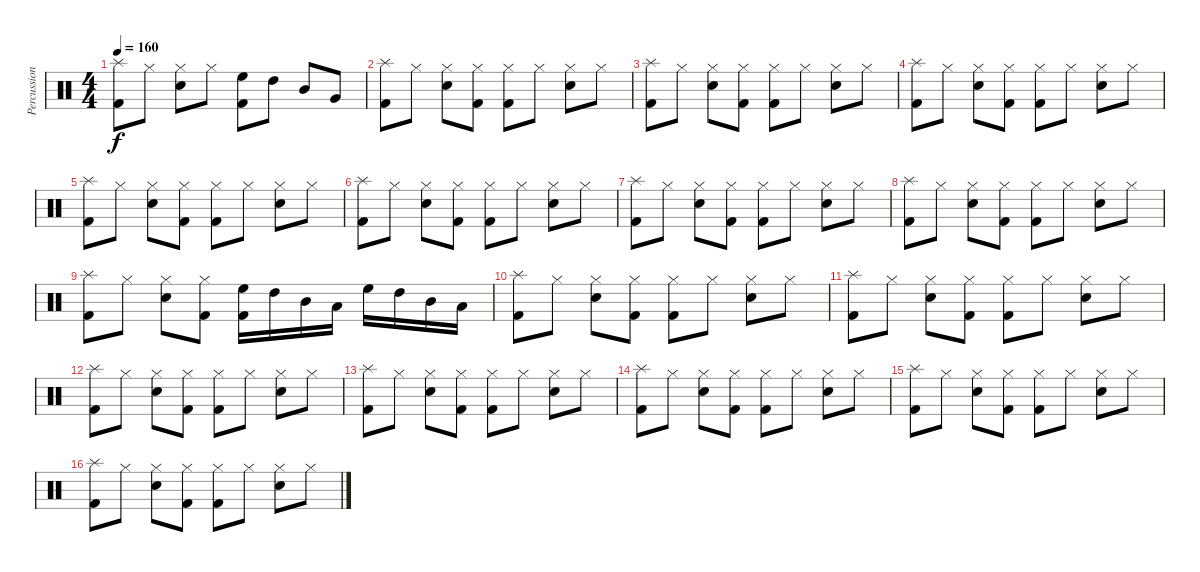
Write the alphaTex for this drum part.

\track ("Percussion" "Percussion") {instrument percussion}
\staff {score}
\articulation defaults
\ts (4 4)
\tempo 160
\clef neutral
\ks c
("Splash (hit)" "Kick (hit) 2").8{dy f} "Hi-Hat (closed)".8 ("Hi-Hat (closed)" "Snare (hit) 2").8 "Hi-Hat (closed)".8 ("High Floor Tom (hit)" "Kick (hit) 2").8 "High Tom (hit)".8 "Mid Tom (hit)".8 "Very Low Tom (hit)".8 |
("Splash (hit)" "Kick (hit) 2").8 "Hi-Hat (closed)".8 ("Hi-Hat (closed)" "Snare (hit) 2").8 ("Hi-Hat (closed)" "Kick (hit) 2").8 ("Hi-Hat (closed)" "Kick (hit) 2").8 "Hi-Hat (closed)".8 ("Hi-Hat (closed)" "Snare (hit) 2").8 "Hi-Hat (closed)".8 |
("Splash (hit)" "Kick (hit) 2").8 "Hi-Hat (closed)".8 ("Hi-Hat (closed)" "Snare (hit) 2").8 ("Hi-Hat (closed)" "Kick (hit) 2").8 ("Hi-Hat (closed)" "Kick (hit) 2").8 "Hi-Hat (closed)".8 ("Hi-Hat (closed)" "Snare (hit) 2").8 "Hi-Hat (closed)".8 |
("Splash (hit)" "Kick (hit) 2").8 "Hi-Hat (closed)".8 ("Hi-Hat (closed)" "Snare (hit) 2").8 ("Hi-Hat (closed)" "Kick (hit) 2").8 ("Hi-Hat (closed)" "Kick (hit) 2").8 "Hi-Hat (closed)".8 ("Hi-Hat (closed)" "Snare (hit) 2").8 "Hi-Hat (closed)".8 |
("Splash (hit)" "Kick (hit) 2").8 "Hi-Hat (closed)".8 ("Hi-Hat (closed)" "Snare (hit) 2").8 ("Hi-Hat (closed)" "Kick (hit) 2").8 ("Hi-Hat (closed)" "Kick (hit) 2").8 "Hi-Hat (closed)".8 ("Hi-Hat (closed)" "Snare (hit) 2").8 "Hi-Hat (closed)".8 |
("Splash (hit)" "Kick (hit) 2").8 "Hi-Hat (closed)".8 ("Hi-Hat (closed)" "Snare (hit) 2").8 ("Hi-Hat (closed)" "Kick (hit) 2").8 ("Hi-Hat (closed)" "Kick (hit) 2").8 "Hi-Hat (closed)".8 ("Hi-Hat (closed)" "Snare (hit) 2").8 "Hi-Hat (closed)".8 |
("Splash (hit)" "Kick (hit) 2").8 "Hi-Hat (closed)".8 ("Hi-Hat (closed)" "Snare (hit) 2").8 ("Hi-Hat (closed)" "Kick (hit) 2").8 ("Hi-Hat (closed)" "Kick (hit) 2").8 "Hi-Hat (closed)".8 ("Hi-Hat (closed)" "Snare (hit) 2").8 "Hi-Hat (closed)".8 |
("Splash (hit)" "Kick (hit) 2").8 "Hi-Hat (closed)".8 ("Hi-Hat (closed)" "Snare (hit) 2").8 ("Hi-Hat (closed)" "Kick (hit) 2").8 ("Hi-Hat (closed)" "Kick (hit) 2").8 "Hi-Hat (closed)".8 ("Hi-Hat (closed)" "Snare (hit) 2").8 "Hi-Hat (closed)".8 |
("Splash (hit)" "Kick (hit) 2").8 "Hi-Hat (closed)".8 ("Hi-Hat (closed)" "Snare (hit) 2").8 ("Hi-Hat (closed)" "Kick (hit) 2").8 ("High Floor Tom (hit)" "Kick (hit) 2").16 "High Tom (hit)".16 "Mid Tom (hit)".16 "Low Tom (hit)".16 "High Floor Tom (hit)".16 "High Tom (hit)".16 "Mid Tom (hit)".16 "Low Tom (hit)".16 |
("Splash (hit)" "Kick (hit) 2").8 "Hi-Hat (closed)".8 ("Hi-Hat (closed)" "Snare (hit) 2").8 ("Hi-Hat (closed)" "Kick (hit) 2").8 ("Hi-Hat (closed)" "Kick (hit) 2").8 "Hi-Hat (closed)".8 ("Hi-Hat (closed)" "Snare (hit) 2").8 "Hi-Hat (closed)".8 |
("Splash (hit)" "Kick (hit) 2").8 "Hi-Hat (closed)".8 ("Hi-Hat (closed)" "Snare (hit) 2").8 ("Hi-Hat (closed)" "Kick (hit) 2").8 ("Hi-Hat (closed)" "Kick (hit) 2").8 "Hi-Hat (closed)".8 ("Hi-Hat (closed)" "Snare (hit) 2").8 "Hi-Hat (closed)".8 |
("Splash (hit)" "Kick (hit) 2").8 "Hi-Hat (closed)".8 ("Hi-Hat (closed)" "Snare (hit) 2").8 ("Hi-Hat (closed)" "Kick (hit) 2").8 ("Hi-Hat (closed)" "Kick (hit) 2").8 "Hi-Hat (closed)".8 ("Hi-Hat (closed)" "Snare (hit) 2").8 "Hi-Hat (closed)".8 |
("Splash (hit)" "Kick (hit) 2").8 "Hi-Hat (closed)".8 ("Hi-Hat (closed)" "Snare (hit) 2").8 ("Hi-Hat (closed)" "Kick (hit) 2").8 ("Hi-Hat (closed)" "Kick (hit) 2").8 "Hi-Hat (closed)".8 ("Hi-Hat (closed)" "Snare (hit) 2").8 "Hi-Hat (closed)".8 |
("Splash (hit)" "Kick (hit) 2").8 "Hi-Hat (closed)".8 ("Hi-Hat (closed)" "Snare (hit) 2").8 ("Hi-Hat (closed)" "Kick (hit) 2").8 ("Hi-Hat (closed)" "Kick (hit) 2").8 "Hi-Hat (closed)".8 ("Hi-Hat (closed)" "Snare (hit) 2").8 "Hi-Hat (closed)".8 |
("Splash (hit)" "Kick (hit) 2").8 "Hi-Hat (closed)".8 ("Hi-Hat (closed)" "Snare (hit) 2").8 ("Hi-Hat (closed)" "Kick (hit) 2").8 ("Hi-Hat (closed)" "Kick (hit) 2").8 "Hi-Hat (closed)".8 ("Hi-Hat (closed)" "Snare (hit) 2").8 "Hi-Hat (closed)".8 |
("Splash (hit)" "Kick (hit) 2").8 "Hi-Hat (closed)".8 ("Hi-Hat (closed)" "Snare (hit) 2").8 ("Hi-Hat (closed)" "Kick (hit) 2").8 ("Hi-Hat (closed)" "Kick (hit) 2").8 "Hi-Hat (closed)".8 ("Hi-Hat (closed)" "Snare (hit) 2").8 "Hi-Hat (closed)".8
